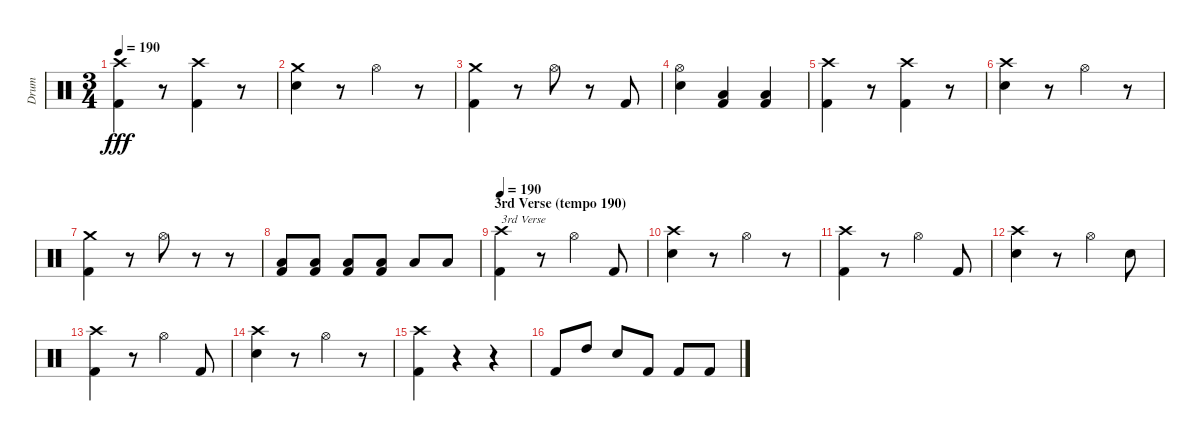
\track ("Drum" "Drum") {instrument percussion}
\staff {score}
\articulation defaults
\ts (3 4)
\tempo 190
\clef neutral
\ks c
("Crash high (hit)" "Kick (hit) 2").4{dy fff} r.8 ("Crash high (hit)" "Kick (hit) 2").4 r.8 |
("Crash medium (hit)" "Snare (hit) 2").4 r.8 "Hi-Hat (open)".4 r.8 |
("Crash medium (hit)" "Kick (hit) 2").4 r.8 "Hi-Hat (open)".8 r.8 "Kick (hit) 2".8 |
("Hi-Hat (open)" "Snare (hit) 2").4 ("Low Tom (hit)" "Kick (hit) 2").4 ("Low Tom (hit)" "Kick (hit) 2").4 |
("Crash high (hit)" "Kick (hit) 2").4 r.8 ("Crash high (hit)" "Kick (hit) 2").4 r.8 |
("Crash high (hit)" "Snare (hit) 2").4 r.8 "Hi-Hat (open)".4 r.8 |
("Crash medium (hit)" "Kick (hit) 2").4 r.8 "Hi-Hat (open)".8 r.8 r.8 |
("Low Tom (hit)" "Kick (hit) 2").8 ("Low Tom (hit)" "Kick (hit) 2").8 ("Low Tom (hit)" "Kick (hit) 2").8 ("Low Tom (hit)" "Kick (hit) 2").8 "Low Tom (hit)".8 "Low Tom (hit)".8 |
\section ("" "3rd Verse (tempo 190)")
\tempo 190
("Crash high (hit)" "Kick (hit) 2").4{txt "3rd Verse"} r.8 "Hi-Hat (open)".4 "Kick (hit) 2".8 |
("Crash high (hit)" "Snare (hit) 2").4 r.8 "Hi-Hat (open)".4 r.8 |
("Crash high (hit)" "Kick (hit) 2").4 r.8 "Hi-Hat (open)".4 "Kick (hit) 2".8 |
("Crash high (hit)" "Snare (hit) 2").4 r.8 "Hi-Hat (open)".4 "Snare (hit) 2".8 |
("Crash high (hit)" "Kick (hit) 2").4 r.8 "Hi-Hat (open)".4 "Kick (hit) 2".8 |
("Crash high (hit)" "Snare (hit) 2").4 r.8 "Hi-Hat (open)".4 r.8 |
("Crash high (hit)" "Kick (hit) 2").4 r.4 r.4 |
"Kick (hit) 2".8 "High Tom (hit)".8 "Snare (hit) 2".8 "Kick (hit) 2".8 "Kick (hit) 2".8 "Kick (hit) 2".8
